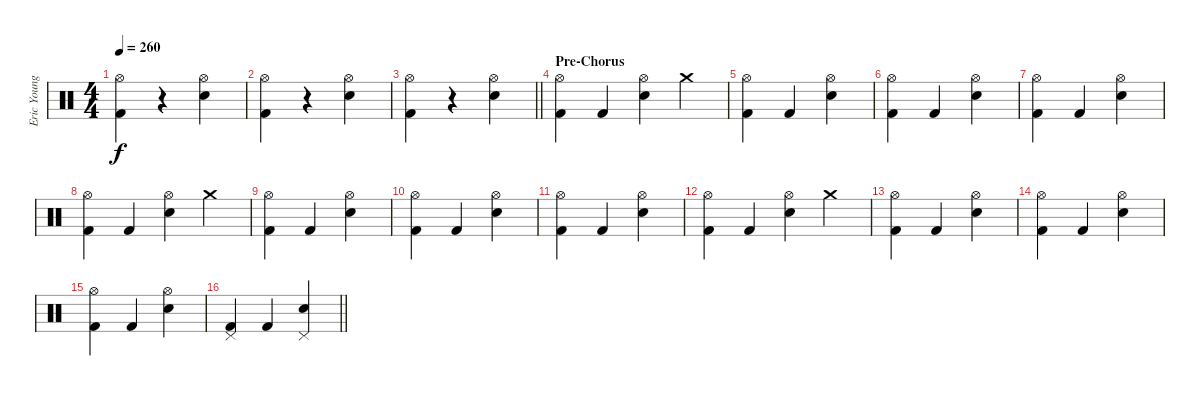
\track ("Eric Young (Drums)" "Eric Young") {instrument percussion}
\staff {score}
\articulation defaults
\ts (4 4)
\tempo 260
\clef neutral
\ks c
("Hi-Hat (open)" "Kick (hit) 2").4{dy f} r.4 ("Hi-Hat (open)" "Snare (hit) 2").4 |
("Hi-Hat (open)" "Kick (hit) 2").4 r.4 ("Hi-Hat (open)" "Snare (hit) 2").4 |
\barLineRight lightlight
("Hi-Hat (open)" "Kick (hit) 2").4 r.4 ("Hi-Hat (open)" "Snare (hit) 2").4 |
\section ("" "Pre-Chorus")
("Hi-Hat (open)" "Kick (hit) 2").4 "Kick (hit) 2".4 ("Hi-Hat (open)" "Snare (hit) 2").4 "Crash medium (hit)".4 |
("Hi-Hat (open)" "Kick (hit) 2").4 "Kick (hit) 2".4 ("Hi-Hat (open)" "Snare (hit) 2").4 |
("Hi-Hat (open)" "Kick (hit) 2").4 "Kick (hit) 2".4 ("Hi-Hat (open)" "Snare (hit) 2").4 |
("Hi-Hat (open)" "Kick (hit) 2").4 "Kick (hit) 2".4 ("Hi-Hat (open)" "Snare (hit) 2").4 |
("Hi-Hat (open)" "Kick (hit) 2").4 "Kick (hit) 2".4 ("Hi-Hat (open)" "Snare (hit) 2").4 "Crash medium (hit)".4 |
("Hi-Hat (open)" "Kick (hit) 2").4 "Kick (hit) 2".4 ("Hi-Hat (open)" "Snare (hit) 2").4 |
("Hi-Hat (open)" "Kick (hit) 2").4 "Kick (hit) 2".4 ("Hi-Hat (open)" "Snare (hit) 2").4 |
("Hi-Hat (open)" "Kick (hit) 2").4 "Kick (hit) 2".4 ("Hi-Hat (open)" "Snare (hit) 2").4 |
("Hi-Hat (open)" "Kick (hit) 2").4 "Kick (hit) 2".4 ("Hi-Hat (open)" "Snare (hit) 2").4 "Crash medium (hit)".4 |
("Hi-Hat (open)" "Kick (hit) 2").4 "Kick (hit) 2".4 ("Hi-Hat (open)" "Snare (hit) 2").4 |
("Hi-Hat (open)" "Kick (hit) 2").4 "Kick (hit) 2".4 ("Hi-Hat (open)" "Snare (hit) 2").4 |
("Hi-Hat (open)" "Kick (hit) 2").4 "Kick (hit) 2".4 ("Hi-Hat (open)" "Snare (hit) 2").4 |
\barLineRight lightlight
("Pedal Hi-Hat (hit)" "Kick (hit) 2").4 "Kick (hit) 2".4 ("Pedal Hi-Hat (hit)" "Snare (hit) 2").4
